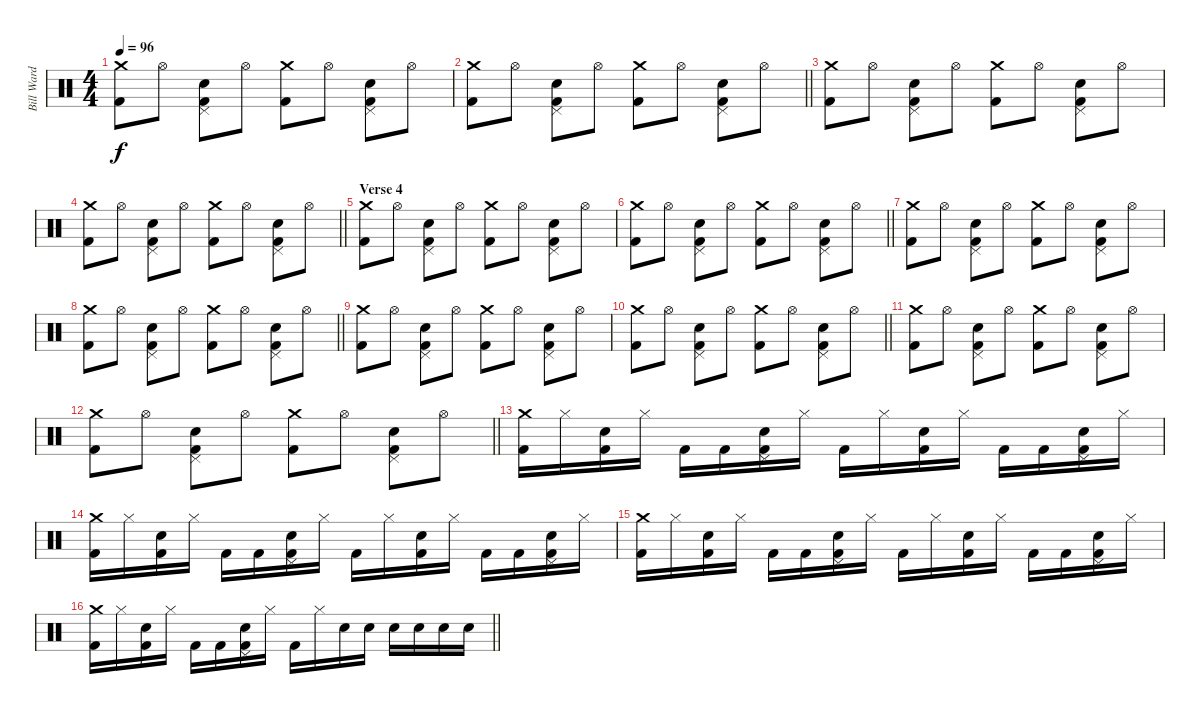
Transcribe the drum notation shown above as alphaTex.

\track ("Bill Ward" "Bill Ward") {instrument percussion}
\staff {score}
\articulation defaults
\ts (4 4)
\tempo 96
\clef neutral
\ks c
("Crash medium (hit)" "Kick (hit) 2").8{dy f} "Hi-Hat (open)".8 ("Pedal Hi-Hat (hit)" "Snare (hit) 2" "Kick (hit) 2").8 "Hi-Hat (open)".8 ("Crash medium (hit)" "Kick (hit) 2").8 "Hi-Hat (open)".8 ("Pedal Hi-Hat (hit)" "Snare (hit) 2" "Kick (hit) 2").8 "Hi-Hat (open)".8 |
\barLineRight lightlight
("Crash medium (hit)" "Kick (hit) 2").8 "Hi-Hat (open)".8 ("Pedal Hi-Hat (hit)" "Snare (hit) 2" "Kick (hit) 2").8 "Hi-Hat (open)".8 ("Crash medium (hit)" "Kick (hit) 2").8 "Hi-Hat (open)".8 ("Pedal Hi-Hat (hit)" "Snare (hit) 2" "Kick (hit) 2").8 "Hi-Hat (open)".8 |
("Crash medium (hit)" "Kick (hit) 2").8 "Hi-Hat (open)".8 ("Pedal Hi-Hat (hit)" "Snare (hit) 2" "Kick (hit) 2").8 "Hi-Hat (open)".8 ("Crash medium (hit)" "Kick (hit) 2").8 "Hi-Hat (open)".8 ("Pedal Hi-Hat (hit)" "Snare (hit) 2" "Kick (hit) 2").8 "Hi-Hat (open)".8 |
\barLineRight lightlight
("Crash medium (hit)" "Kick (hit) 2").8 "Hi-Hat (open)".8 ("Pedal Hi-Hat (hit)" "Snare (hit) 2" "Kick (hit) 2").8 "Hi-Hat (open)".8 ("Crash medium (hit)" "Kick (hit) 2").8 "Hi-Hat (open)".8 ("Pedal Hi-Hat (hit)" "Snare (hit) 2" "Kick (hit) 2").8 "Hi-Hat (open)".8 |
\section ("" "Verse 4")
("Crash medium (hit)" "Kick (hit) 2").8 "Hi-Hat (open)".8 ("Pedal Hi-Hat (hit)" "Snare (hit) 2" "Kick (hit) 2").8 "Hi-Hat (open)".8 ("Crash medium (hit)" "Kick (hit) 2").8 "Hi-Hat (open)".8 ("Pedal Hi-Hat (hit)" "Snare (hit) 2" "Kick (hit) 2").8 "Hi-Hat (open)".8 |
\barLineRight lightlight
("Crash medium (hit)" "Kick (hit) 2").8 "Hi-Hat (open)".8 ("Pedal Hi-Hat (hit)" "Snare (hit) 2" "Kick (hit) 2").8 "Hi-Hat (open)".8 ("Crash medium (hit)" "Kick (hit) 2").8 "Hi-Hat (open)".8 ("Pedal Hi-Hat (hit)" "Snare (hit) 2" "Kick (hit) 2").8 "Hi-Hat (open)".8 |
("Crash medium (hit)" "Kick (hit) 2").8 "Hi-Hat (open)".8 ("Pedal Hi-Hat (hit)" "Snare (hit) 2" "Kick (hit) 2").8 "Hi-Hat (open)".8 ("Crash medium (hit)" "Kick (hit) 2").8 "Hi-Hat (open)".8 ("Pedal Hi-Hat (hit)" "Snare (hit) 2" "Kick (hit) 2").8 "Hi-Hat (open)".8 |
\barLineRight lightlight
("Crash medium (hit)" "Kick (hit) 2").8 "Hi-Hat (open)".8 ("Pedal Hi-Hat (hit)" "Snare (hit) 2" "Kick (hit) 2").8 "Hi-Hat (open)".8 ("Crash medium (hit)" "Kick (hit) 2").8 "Hi-Hat (open)".8 ("Pedal Hi-Hat (hit)" "Snare (hit) 2" "Kick (hit) 2").8 "Hi-Hat (open)".8 |
("Crash medium (hit)" "Kick (hit) 2").8 "Hi-Hat (open)".8 ("Pedal Hi-Hat (hit)" "Snare (hit) 2" "Kick (hit) 2").8 "Hi-Hat (open)".8 ("Crash medium (hit)" "Kick (hit) 2").8 "Hi-Hat (open)".8 ("Pedal Hi-Hat (hit)" "Snare (hit) 2" "Kick (hit) 2").8 "Hi-Hat (open)".8 |
\barLineRight lightlight
("Crash medium (hit)" "Kick (hit) 2").8 "Hi-Hat (open)".8 ("Pedal Hi-Hat (hit)" "Snare (hit) 2" "Kick (hit) 2").8 "Hi-Hat (open)".8 ("Crash medium (hit)" "Kick (hit) 2").8 "Hi-Hat (open)".8 ("Pedal Hi-Hat (hit)" "Snare (hit) 2" "Kick (hit) 2").8 "Hi-Hat (open)".8 |
("Crash medium (hit)" "Kick (hit) 2").8 "Hi-Hat (open)".8 ("Pedal Hi-Hat (hit)" "Snare (hit) 2" "Kick (hit) 2").8 "Hi-Hat (open)".8 ("Crash medium (hit)" "Kick (hit) 2").8 "Hi-Hat (open)".8 ("Pedal Hi-Hat (hit)" "Snare (hit) 2" "Kick (hit) 2").8 "Hi-Hat (open)".8 |
\barLineRight lightlight
("Crash medium (hit)" "Kick (hit) 2").8 "Hi-Hat (open)".8 ("Pedal Hi-Hat (hit)" "Snare (hit) 2" "Kick (hit) 2").8 "Hi-Hat (open)".8 ("Crash medium (hit)" "Kick (hit) 2").8 "Hi-Hat (open)".8 ("Pedal Hi-Hat (hit)" "Snare (hit) 2" "Kick (hit) 2").8 "Hi-Hat (open)".8 |
("Crash medium (hit)" "Kick (hit) 2").16 "Hi-Hat (closed)".16 ("Snare (hit) 2" "Kick (hit) 2").16 "Hi-Hat (closed)".16 "Kick (hit) 2".16 "Kick (hit) 2".16 ("Pedal Hi-Hat (hit)" "Snare (hit) 2" "Kick (hit) 2").16 "Hi-Hat (closed)".16 "Kick (hit) 2".16 "Hi-Hat (closed)".16 ("Snare (hit) 2" "Kick (hit) 2").16 "Hi-Hat (closed)".16 "Kick (hit) 2".16 "Kick (hit) 2".16 ("Pedal Hi-Hat (hit)" "Snare (hit) 2" "Kick (hit) 2").16 "Hi-Hat (closed)".16 |
("Crash medium (hit)" "Kick (hit) 2").16 "Hi-Hat (closed)".16 ("Snare (hit) 2" "Kick (hit) 2").16 "Hi-Hat (closed)".16 "Kick (hit) 2".16 "Kick (hit) 2".16 ("Pedal Hi-Hat (hit)" "Snare (hit) 2" "Kick (hit) 2").16 "Hi-Hat (closed)".16 "Kick (hit) 2".16 "Hi-Hat (closed)".16 ("Snare (hit) 2" "Kick (hit) 2").16 "Hi-Hat (closed)".16 "Kick (hit) 2".16 "Kick (hit) 2".16 ("Pedal Hi-Hat (hit)" "Snare (hit) 2" "Kick (hit) 2").16 "Hi-Hat (closed)".16 |
("Crash medium (hit)" "Kick (hit) 2").16 "Hi-Hat (closed)".16 ("Snare (hit) 2" "Kick (hit) 2").16 "Hi-Hat (closed)".16 "Kick (hit) 2".16 "Kick (hit) 2".16 ("Pedal Hi-Hat (hit)" "Snare (hit) 2" "Kick (hit) 2").16 "Hi-Hat (closed)".16 "Kick (hit) 2".16 "Hi-Hat (closed)".16 ("Snare (hit) 2" "Kick (hit) 2").16 "Hi-Hat (closed)".16 "Kick (hit) 2".16 "Kick (hit) 2".16 ("Pedal Hi-Hat (hit)" "Snare (hit) 2" "Kick (hit) 2").16 "Hi-Hat (closed)".16 |
\barLineRight lightlight
("Crash medium (hit)" "Kick (hit) 2").16 "Hi-Hat (closed)".16 ("Snare (hit) 2" "Kick (hit) 2").16 "Hi-Hat (closed)".16 "Kick (hit) 2".16 "Kick (hit) 2".16 ("Pedal Hi-Hat (hit)" "Snare (hit) 2" "Kick (hit) 2").16 "Hi-Hat (closed)".16 "Kick (hit) 2".16 "Hi-Hat (closed)".16 "Snare (hit) 2".16 "Snare (hit) 2".16 "Snare (hit) 2".16 "Snare (hit) 2".16 "Snare (hit) 2".16 "Snare (hit) 2".16
